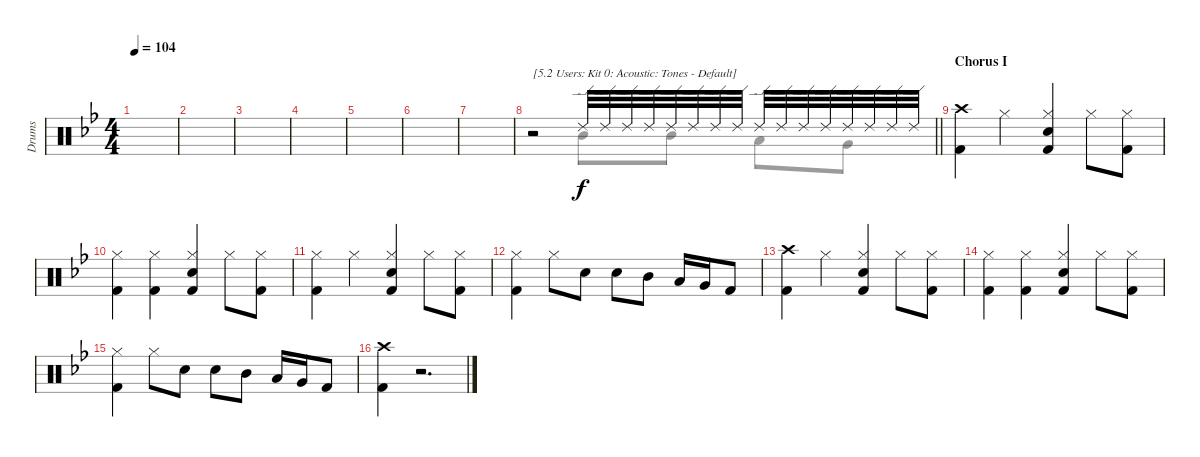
\track ("Drums" "Drums") {instrument percussion}
\staff {score}
\articulation defaults
\voice
\ts (4 4)
\tempo 104
\clef neutral
\ks bb
|
|
|
|
|
|
|
\barLineRight lightlight
r.2{txt "[5.2 Users: Kit 0: Acoustic: Tones - Default]"} "Ride (edge) 2".32 "Ride (edge) 2".32 "Ride (edge) 2".32 "Ride (edge) 2".32 "Ride (edge) 2".32 "Ride (edge) 2".32 "Ride (edge) 2".32 "Ride (edge) 2".32 "Ride (edge) 2".32 "Ride (edge) 2".32 "Ride (edge) 2".32 "Ride (edge) 2".32 "Ride (edge) 2".32 "Ride (edge) 2".32 "Ride (edge) 2".32 "Ride (edge) 2".32 |
\section ("" "Chorus I")
("Crash high (hit)" "Kick (hit) 2").4 "Hi-Hat (closed)".4 ("Hi-Hat (closed)" "Snare (hit) 2" "Kick (hit) 2").4 "Hi-Hat (closed)".8 ("Hi-Hat (closed)" "Kick (hit) 2").8 |
("Hi-Hat (closed)" "Kick (hit) 2").4 ("Hi-Hat (closed)" "Kick (hit) 2").4 ("Hi-Hat (closed)" "Snare (hit) 2" "Kick (hit) 2").4 "Hi-Hat (closed)".8 ("Hi-Hat (closed)" "Kick (hit) 2").8 |
("Hi-Hat (closed)" "Kick (hit) 2").4 "Hi-Hat (closed)".4 ("Hi-Hat (closed)" "Snare (hit) 2" "Kick (hit) 2").4 "Hi-Hat (closed)".8 ("Hi-Hat (closed)" "Kick (hit) 2").8 |
("Hi-Hat (closed)" "Kick (hit) 2").4 "Hi-Hat (closed)".8 "Snare (hit) 2".8 "Snare (hit) 2".8 "Mid Tom (hit)".8 "Low Tom (hit)".16 "Very Low Tom (hit)".16 "Kick (hit) 2".8 |
("Crash high (hit)" "Kick (hit) 2").4 "Hi-Hat (closed)".4 ("Hi-Hat (closed)" "Snare (hit) 2" "Kick (hit) 2").4 "Hi-Hat (closed)".8 ("Hi-Hat (closed)" "Kick (hit) 2").8 |
("Hi-Hat (closed)" "Kick (hit) 2").4 ("Hi-Hat (closed)" "Kick (hit) 2").4 ("Hi-Hat (closed)" "Snare (hit) 2" "Kick (hit) 2").4 "Hi-Hat (closed)".8 ("Hi-Hat (closed)" "Kick (hit) 2").8 |
("Hi-Hat (closed)" "Kick (hit) 2").4 "Hi-Hat (closed)".8 "Snare (hit) 2".8 "Snare (hit) 2".8 "Mid Tom (hit)".8 "Low Tom (hit)".16 "Very Low Tom (hit)".16 "Kick (hit) 2".8 |
("Crash high (hit)" "Kick (hit) 2").4 r.2{d}
\voice
\clef neutral
\ottava regular
\simile none
\ks bb
|
|
|
|
|
|
|
\barLineRight lightlight
r.2 "Mid Tom (hit)".8 "Mid Tom (hit)".8 "Low Tom (hit)".8 "Very Low Tom (hit)".8 |
|
|
|
|
|
|
|
